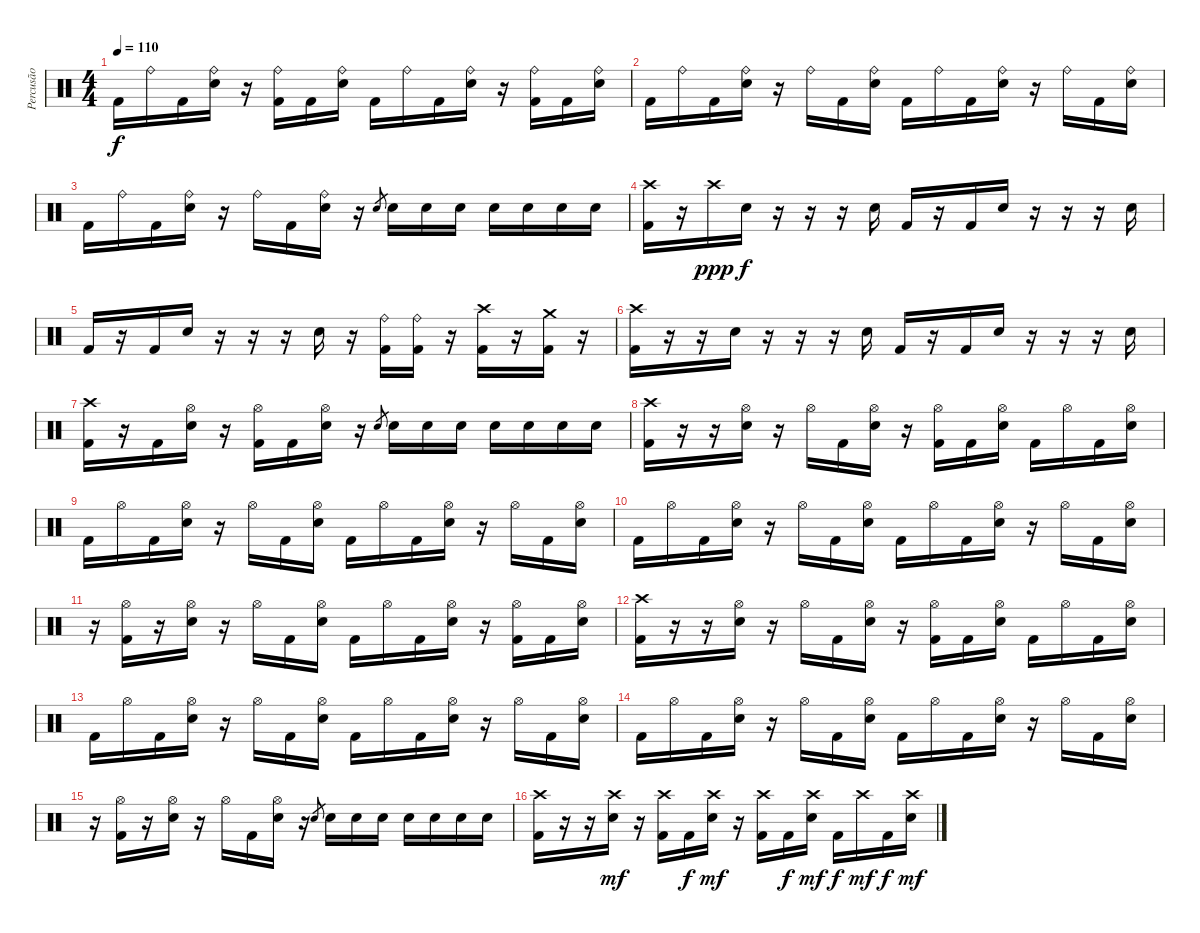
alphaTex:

\track ("Percusão" "Percusão") {instrument percussion}
\staff {score}
\articulation defaults
\ts (4 4)
\tempo 110
\clef neutral
\ks c "Kick (hit) 2".16{dy f} "Ride (bell)".16 "Kick (hit) 2".16
("Ride (bell)" "Snare (hit) 2").16 r.16 ("Ride (bell)" "Kick (hit) 2").16 "Kick (hit) 2".16 ("Ride (bell)" "Snare (hit) 2").16 "Kick (hit) 2".16 "Ride (bell)".16 "Kick (hit) 2".16 ("Ride (bell)" "Snare (hit) 2").16 r.16 ("Ride (bell)" "Kick (hit) 2").16 "Kick (hit) 2".16 ("Ride (bell)" "Snare (hit) 2").16 |
"Kick (hit) 2".16 "Ride (bell)".16 "Kick (hit) 2".16 ("Ride (bell)" "Snare (hit) 2").16 r.16 "Ride (bell)".16 "Kick (hit) 2".16 ("Ride (bell)" "Snare (hit) 2").16 "Kick (hit) 2".16 "Ride (bell)".16 "Kick (hit) 2".16 ("Ride (bell)" "Snare (hit) 2").16 r.16 "Ride (bell)".16 "Kick (hit) 2".16 ("Ride (bell)" "Snare (hit) 2").16 |
"Kick (hit) 2".16 "Ride (bell)".16 "Kick (hit) 2".16 ("Ride (bell)" "Snare (hit) 2").16 r.16 "Ride (bell)".16 "Kick (hit) 2".16 ("Ride (bell)" "Snare (hit) 2").16 r.16 "Snare (hit) 2".8{gr} "Snare (hit) 2".16 "Snare (hit) 2".16 "Snare (hit) 2".16 "Snare (hit) 2".16 "Snare (hit) 2".16 "Snare (hit) 2".16 "Snare (hit) 2".16 |
("Crash high (hit)" "Kick (hit) 2").16 r.16 "Crash high (hit)".16{dy ppp} "Snare (hit) 2".16{dy f} r.16 r.16 r.16 "Snare (hit) 2".16 "Kick (hit) 2".16 r.16 "Kick (hit) 2".16 "Snare (hit) 2".16 r.16 r.16 r.16 "Snare (hit) 2".16 |
"Kick (hit) 2".16 r.16 "Kick (hit) 2".16 "Snare (hit) 2".16 r.16 r.16 r.16 "Snare (hit) 2".16 r.16 ("Ride (bell)" "Kick (hit) 2").16 ("Ride (bell)" "Kick (hit) 2").16 r.16 ("Crash high (hit)" "Kick (hit) 2").16 r.16 ("Crash medium (hit)" "Kick (hit) 2").16 r.16 |
("Crash high (hit)" "Kick (hit) 2").16 r.16 r.16 "Snare (hit) 2".16 r.16 r.16 r.16 "Snare (hit) 2".16 "Kick (hit) 2".16 r.16 "Kick (hit) 2".16 "Snare (hit) 2".16 r.16 r.16 r.16 "Snare (hit) 2".16 |
("Crash high (hit)" "Kick (hit) 2").16 r.16 "Kick (hit) 2".16 ("Hi-Hat (open)" "Snare (hit) 2").16 r.16 ("Hi-Hat (open)" "Kick (hit) 2").16 "Kick (hit) 2".16 ("Hi-Hat (open)" "Snare (hit) 2").16 r.16 "Snare (hit) 2".8{gr} "Snare (hit) 2".16 "Snare (hit) 2".16 "Snare (hit) 2".16 "Snare (hit) 2".16 "Snare (hit) 2".16 "Snare (hit) 2".16 "Snare (hit) 2".16 |
("Crash high (hit)" "Kick (hit) 2").16 r.16 r.16 ("Hi-Hat (open)" "Snare (hit) 2").16 r.16 "Hi-Hat (open)".16 "Kick (hit) 2".16 ("Hi-Hat (open)" "Snare (hit) 2").16 r.16 ("Hi-Hat (open)" "Kick (hit) 2").16 "Kick (hit) 2".16 ("Hi-Hat (open)" "Snare (hit) 2").16 "Kick (hit) 2".16 "Hi-Hat (open)".16 "Kick (hit) 2".16 ("Hi-Hat (open)" "Snare (hit) 2").16 |
"Kick (hit) 2".16 "Hi-Hat (open)".16 "Kick (hit) 2".16 ("Hi-Hat (open)" "Snare (hit) 2").16 r.16 "Hi-Hat (open)".16 "Kick (hit) 2".16 ("Hi-Hat (open)" "Snare (hit) 2").16 "Kick (hit) 2".16 "Hi-Hat (open)".16 "Kick (hit) 2".16 ("Hi-Hat (open)" "Snare (hit) 2").16 r.16 "Hi-Hat (open)".16 "Kick (hit) 2".16 ("Hi-Hat (open)" "Snare (hit) 2").16 |
"Kick (hit) 2".16 "Hi-Hat (open)".16 "Kick (hit) 2".16 ("Hi-Hat (open)" "Snare (hit) 2").16 r.16 "Hi-Hat (open)".16 "Kick (hit) 2".16 ("Hi-Hat (open)" "Snare (hit) 2").16 "Kick (hit) 2".16 "Hi-Hat (open)".16 "Kick (hit) 2".16 ("Hi-Hat (open)" "Snare (hit) 2").16 r.16 "Hi-Hat (open)".16 "Kick (hit) 2".16 ("Hi-Hat (open)" "Snare (hit) 2").16 |
r.16 ("Hi-Hat (open)" "Kick (hit) 2").16 r.16 ("Hi-Hat (open)" "Snare (hit) 2").16 r.16 "Hi-Hat (open)".16 "Kick (hit) 2".16 ("Hi-Hat (open)" "Snare (hit) 2").16 "Kick (hit) 2".16 "Hi-Hat (open)".16 "Kick (hit) 2".16 ("Hi-Hat (open)" "Snare (hit) 2").16 r.16 ("Hi-Hat (open)" "Kick (hit) 2").16 "Kick (hit) 2".16 ("Hi-Hat (open)" "Snare (hit) 2").16 |
("Crash high (hit)" "Kick (hit) 2").16 r.16 r.16 ("Hi-Hat (open)" "Snare (hit) 2").16 r.16 "Hi-Hat (open)".16 "Kick (hit) 2".16 ("Hi-Hat (open)" "Snare (hit) 2").16 r.16 ("Hi-Hat (open)" "Kick (hit) 2").16 "Kick (hit) 2".16 ("Hi-Hat (open)" "Snare (hit) 2").16 "Kick (hit) 2".16 "Hi-Hat (open)".16 "Kick (hit) 2".16 ("Hi-Hat (open)" "Snare (hit) 2").16 |
"Kick (hit) 2".16 "Hi-Hat (open)".16 "Kick (hit) 2".16 ("Hi-Hat (open)" "Snare (hit) 2").16 r.16 "Hi-Hat (open)".16 "Kick (hit) 2".16 ("Hi-Hat (open)" "Snare (hit) 2").16 "Kick (hit) 2".16 "Hi-Hat (open)".16 "Kick (hit) 2".16 ("Hi-Hat (open)" "Snare (hit) 2").16 r.16 "Hi-Hat (open)".16 "Kick (hit) 2".16 ("Hi-Hat (open)" "Snare (hit) 2").16 |
"Kick (hit) 2".16 "Hi-Hat (open)".16 "Kick (hit) 2".16 ("Hi-Hat (open)" "Snare (hit) 2").16 r.16 "Hi-Hat (open)".16 "Kick (hit) 2".16 ("Hi-Hat (open)" "Snare (hit) 2").16 "Kick (hit) 2".16 "Hi-Hat (open)".16 "Kick (hit) 2".16 ("Hi-Hat (open)" "Snare (hit) 2").16 r.16 "Hi-Hat (open)".16 "Kick (hit) 2".16 ("Hi-Hat (open)" "Snare (hit) 2").16 |
r.16 ("Hi-Hat (open)" "Kick (hit) 2").16 r.16 ("Hi-Hat (open)" "Snare (hit) 2").16 r.16 "Hi-Hat (open)".16 "Kick (hit) 2".16 ("Hi-Hat (open)" "Snare (hit) 2").16 r.16 "Snare (hit) 2".8{gr} "Snare (hit) 2".16 "Snare (hit) 2".16 "Snare (hit) 2".16 "Snare (hit) 2".16 "Snare (hit) 2".16 "Snare (hit) 2".16 "Snare (hit) 2".16 |
("Crash high (hit)" "Kick (hit) 2").16 r.16 r.16 ("Crash high (hit)" "Snare (hit) 2").16{dy mf} r.16 ("Crash high (hit)" "Kick (hit) 2").16 "Kick (hit) 2".16{dy f} ("Crash high (hit)" "Snare (hit) 2").16{dy mf} r.16 ("Crash high (hit)" "Kick (hit) 2").16 "Kick (hit) 2".16{dy f} ("Crash high (hit)" "Snare (hit) 2").16{dy mf} "Kick (hit) 2".16{dy f} "Crash high (hit)".16{dy mf} "Kick (hit) 2".16{dy f} ("Crash high (hit)" "Snare (hit) 2").16{dy mf}
